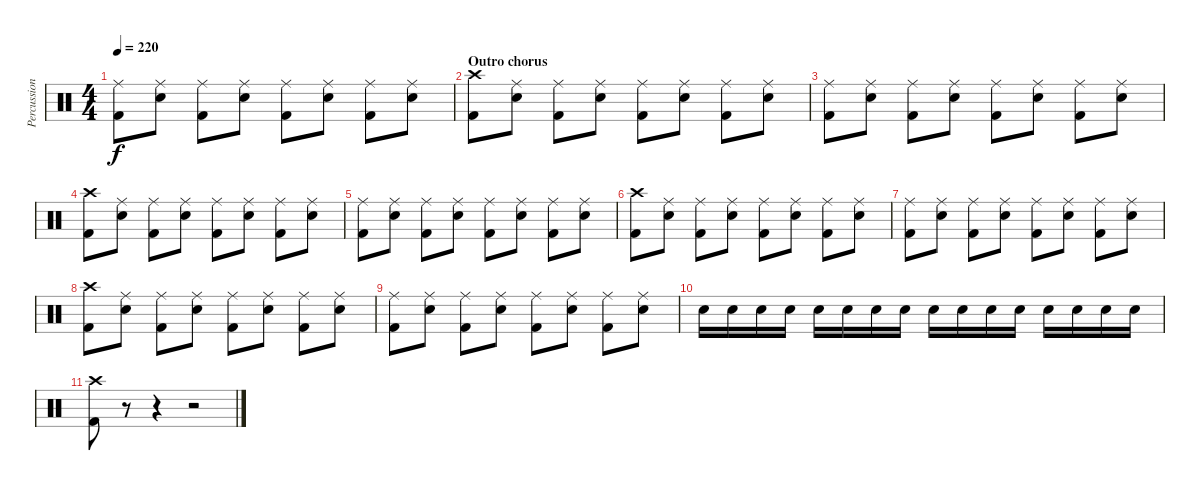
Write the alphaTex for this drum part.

\track ("Percussion" "Percussion") {instrument percussion}
\staff {score}
\articulation defaults
\ts (4 4)
\tempo 220
\clef neutral
\ks c
("Ride (middle)" "Kick (hit) 2").8{dy f} ("Ride (middle)" "Electric Snare (hit)").8 ("Ride (middle)" "Kick (hit) 2").8 ("Ride (middle)" "Electric Snare (hit)").8 ("Ride (middle)" "Kick (hit) 2").8 ("Ride (middle)" "Electric Snare (hit)").8 ("Ride (middle)" "Kick (hit) 2").8 ("Ride (middle)" "Electric Snare (hit)").8 |
\section ("" "Outro chorus")
("Crash high (hit)" "Kick (hit) 2").8 ("Ride (middle)" "Electric Snare (hit)").8 ("Ride (middle)" "Kick (hit) 2").8 ("Ride (middle)" "Electric Snare (hit)").8 ("Ride (middle)" "Kick (hit) 2").8 ("Ride (middle)" "Electric Snare (hit)").8 ("Ride (middle)" "Kick (hit) 2").8 ("Ride (middle)" "Electric Snare (hit)").8 |
("Ride (middle)" "Kick (hit) 2").8 ("Ride (middle)" "Electric Snare (hit)").8 ("Ride (middle)" "Kick (hit) 2").8 ("Ride (middle)" "Electric Snare (hit)").8 ("Ride (middle)" "Kick (hit) 2").8 ("Ride (middle)" "Electric Snare (hit)").8 ("Ride (middle)" "Kick (hit) 2").8 ("Ride (middle)" "Electric Snare (hit)").8 |
("Crash high (hit)" "Kick (hit) 2").8 ("Ride (middle)" "Electric Snare (hit)").8 ("Ride (middle)" "Kick (hit) 2").8 ("Ride (middle)" "Electric Snare (hit)").8 ("Ride (middle)" "Kick (hit) 2").8 ("Ride (middle)" "Electric Snare (hit)").8 ("Ride (middle)" "Kick (hit) 2").8 ("Ride (middle)" "Electric Snare (hit)").8 |
("Ride (middle)" "Kick (hit) 2").8 ("Ride (middle)" "Electric Snare (hit)").8 ("Ride (middle)" "Kick (hit) 2").8 ("Ride (middle)" "Electric Snare (hit)").8 ("Ride (middle)" "Kick (hit) 2").8 ("Ride (middle)" "Electric Snare (hit)").8 ("Ride (middle)" "Kick (hit) 2").8 ("Ride (middle)" "Electric Snare (hit)").8 |
("Crash high (hit)" "Kick (hit) 2").8 ("Ride (middle)" "Electric Snare (hit)").8 ("Ride (middle)" "Kick (hit) 2").8 ("Ride (middle)" "Electric Snare (hit)").8 ("Ride (middle)" "Kick (hit) 2").8 ("Ride (middle)" "Electric Snare (hit)").8 ("Ride (middle)" "Kick (hit) 2").8 ("Ride (middle)" "Electric Snare (hit)").8 |
("Ride (middle)" "Kick (hit) 2").8 ("Ride (middle)" "Electric Snare (hit)").8 ("Ride (middle)" "Kick (hit) 2").8 ("Ride (middle)" "Electric Snare (hit)").8 ("Ride (middle)" "Kick (hit) 2").8 ("Ride (middle)" "Electric Snare (hit)").8 ("Ride (middle)" "Kick (hit) 2").8 ("Ride (middle)" "Electric Snare (hit)").8 |
("Crash high (hit)" "Kick (hit) 2").8 ("Ride (middle)" "Electric Snare (hit)").8 ("Ride (middle)" "Kick (hit) 2").8 ("Ride (middle)" "Electric Snare (hit)").8 ("Ride (middle)" "Kick (hit) 2").8 ("Ride (middle)" "Electric Snare (hit)").8 ("Ride (middle)" "Kick (hit) 2").8 ("Ride (middle)" "Electric Snare (hit)").8 |
("Ride (middle)" "Kick (hit) 2").8 ("Ride (middle)" "Electric Snare (hit)").8 ("Ride (middle)" "Kick (hit) 2").8 ("Ride (middle)" "Electric Snare (hit)").8 ("Ride (middle)" "Kick (hit) 2").8 ("Ride (middle)" "Electric Snare (hit)").8 ("Ride (middle)" "Kick (hit) 2").8 ("Ride (middle)" "Electric Snare (hit)").8 |
"Electric Snare (hit)".16 "Electric Snare (hit)".16 "Electric Snare (hit)".16 "Electric Snare (hit)".16 "Electric Snare (hit)".16 "Electric Snare (hit)".16 "Electric Snare (hit)".16 "Electric Snare (hit)".16 "Electric Snare (hit)".16 "Electric Snare (hit)".16 "Electric Snare (hit)".16 "Electric Snare (hit)".16 "Electric Snare (hit)".16 "Electric Snare (hit)".16 "Electric Snare (hit)".16 "Electric Snare (hit)".16 |
("Crash high (hit)" "Kick (hit) 2").8 r.8 r.4 r.2
